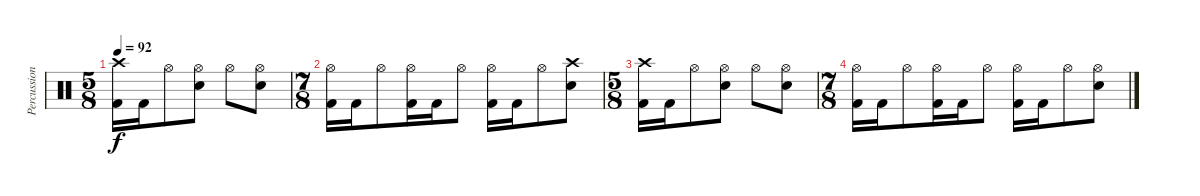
\track ("Percussions" "Percussion") {instrument percussion}
\staff {score}
\articulation defaults
\ts (5 8)
\tempo 92
\clef neutral
\ks c
("Crash high (hit)" "Kick (hit) 2").16{dy f} "Kick (hit) 2".16 "Hi-Hat (open)".8 ("Hi-Hat (open)" "Electric Snare (hit)").8 "Hi-Hat (open)".8 ("Hi-Hat (open)" "Electric Snare (hit)").8 |
\ts (7 8)
("Hi-Hat (open)" "Kick (hit) 2").16 "Kick (hit) 2".16 "Hi-Hat (open)".8 ("Hi-Hat (open)" "Kick (hit) 2").16 "Kick (hit) 2".16 "Hi-Hat (open)".8 ("Hi-Hat (open)" "Kick (hit) 2").16 "Kick (hit) 2".16 "Hi-Hat (open)".8 ("Crash high (hit)" "Electric Snare (hit)").8 |
\ts (5 8)
("Crash high (hit)" "Kick (hit) 2").16 "Kick (hit) 2".16 "Hi-Hat (open)".8 ("Hi-Hat (open)" "Electric Snare (hit)").8 "Hi-Hat (open)".8 ("Hi-Hat (open)" "Electric Snare (hit)").8 |
\ts (7 8)
("Hi-Hat (open)" "Kick (hit) 2").16 "Kick (hit) 2".16 "Hi-Hat (open)".8 ("Hi-Hat (open)" "Kick (hit) 2").16 "Kick (hit) 2".16 "Hi-Hat (open)".8 ("Hi-Hat (open)" "Kick (hit) 2").16 "Kick (hit) 2".16 "Hi-Hat (open)".8 ("Hi-Hat (open)" "Electric Snare (hit)").8
